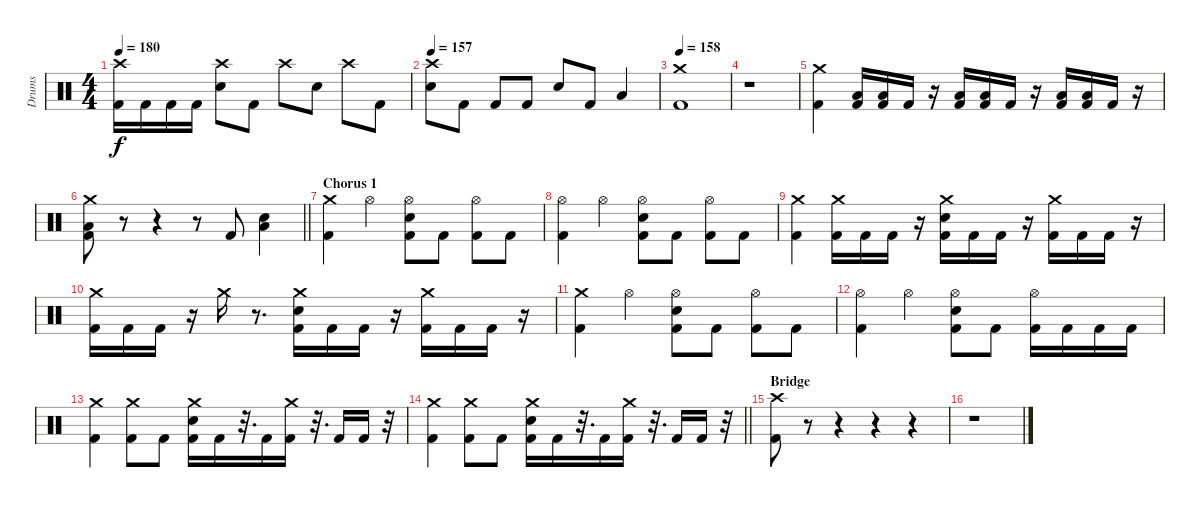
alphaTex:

\track ("Drums" "Drums") {instrument percussion}
\staff {score}
\articulation defaults
\ts (4 4)
\tempo 180
\clef neutral
\ks c
("Crash high (hit)" "Kick (hit) 2").16{dy f} "Kick (hit) 2".16 "Kick (hit) 2".16 "Kick (hit) 2".16 ("Crash high (hit)" "Electric Snare (hit)").8 "Kick (hit) 2".8 "Crash high (hit)".8 "Electric Snare (hit)".8 "Crash high (hit)".8 "Kick (hit) 2".8 |
\tempo 157
("Crash high (hit)" "Electric Snare (hit)").8 "Kick (hit) 2".8 "Kick (hit) 2".8 "Kick (hit) 2".8 "Electric Snare (hit)".8 "Kick (hit) 2".8 "Low Tom (hit)".4 |
\tempo 158
("Crash medium (hit)" "Kick (hit) 2").1 |
r.1 |
("Crash medium (hit)" "Kick (hit) 2").4 ("Low Tom (hit)" "Kick (hit) 2").16 ("Low Tom (hit)" "Kick (hit) 2").16 "Kick (hit) 2".16 r.16 ("Low Tom (hit)" "Kick (hit) 2").16 ("Low Tom (hit)" "Kick (hit) 2").16 "Kick (hit) 2".16 r.16 ("Low Tom (hit)" "Kick (hit) 2").16 ("Low Tom (hit)" "Kick (hit) 2").16 "Kick (hit) 2".16 r.16 |
\barLineRight lightlight
("Crash medium (hit)" "Low Tom (hit)" "Kick (hit) 2").8 r.8 r.4 r.8 "Kick (hit) 2".8 ("Electric Snare (hit)" "Low Tom (hit)").4 |
\section ("" "Chorus 1")
("Crash medium (hit)" "Kick (hit) 2").4 "Hi-Hat (open)".4 ("Hi-Hat (open)" "Electric Snare (hit)" "Kick (hit) 2").8 "Kick (hit) 2".8 ("Hi-Hat (open)" "Kick (hit) 2").8 "Kick (hit) 2".8 |
("Hi-Hat (open)" "Kick (hit) 2").4 "Hi-Hat (open)".4 ("Hi-Hat (open)" "Electric Snare (hit)" "Kick (hit) 2").8 "Kick (hit) 2".8 ("Hi-Hat (open)" "Kick (hit) 2").8 "Kick (hit) 2".8 |
("Crash medium (hit)" "Kick (hit) 2").4 ("Crash medium (hit)" "Kick (hit) 2").16 "Kick (hit) 2".16 "Kick (hit) 2".16 r.16 ("Crash medium (hit)" "Electric Snare (hit)" "Kick (hit) 2").16 "Kick (hit) 2".16 "Kick (hit) 2".16 r.16 ("Crash medium (hit)" "Kick (hit) 2").16 "Kick (hit) 2".16 "Kick (hit) 2".16 r.16 |
("Crash medium (hit)" "Kick (hit) 2").16 "Kick (hit) 2".16 "Kick (hit) 2".16 r.16 "Crash medium (hit)".16 r.8{d} ("Crash medium (hit)" "Electric Snare (hit)" "Kick (hit) 2").16 "Kick (hit) 2".16 "Kick (hit) 2".16 r.16 ("Crash medium (hit)" "Kick (hit) 2").16 "Kick (hit) 2".16 "Kick (hit) 2".16 r.16 |
("Crash medium (hit)" "Kick (hit) 2").4 "Hi-Hat (open)".4 ("Hi-Hat (open)" "Electric Snare (hit)" "Kick (hit) 2").8 "Kick (hit) 2".8 ("Hi-Hat (open)" "Kick (hit) 2").8 "Kick (hit) 2".8 |
("Hi-Hat (open)" "Kick (hit) 2").4 "Hi-Hat (open)".4 ("Hi-Hat (open)" "Electric Snare (hit)" "Kick (hit) 2").8 "Kick (hit) 2".8 ("Hi-Hat (open)" "Kick (hit) 2").16 "Kick (hit) 2".16 "Kick (hit) 2".16 "Kick (hit) 2".16 |
("Crash medium (hit)" "Kick (hit) 2").4 ("Crash medium (hit)" "Kick (hit) 2").8 "Kick (hit) 2".8 ("Crash medium (hit)" "Electric Snare (hit)" "Kick (hit) 2").16 "Kick (hit) 2".16 r.32{d} "Kick (hit) 2".16 ("Crash medium (hit)" "Kick (hit) 2").16 r.32{d} "Kick (hit) 2".16 "Kick (hit) 2".16 r.32 |
\barLineRight lightlight
("Crash medium (hit)" "Kick (hit) 2").4 ("Crash medium (hit)" "Kick (hit) 2").8 "Kick (hit) 2".8 ("Crash medium (hit)" "Electric Snare (hit)" "Kick (hit) 2").16 "Kick (hit) 2".16 r.32{d} "Kick (hit) 2".16 ("Crash medium (hit)" "Kick (hit) 2").16 r.32{d} "Kick (hit) 2".16 "Kick (hit) 2".16 r.32 |
\section ("" "Bridge")
("Crash high (hit)" "Kick (hit) 2").8 r.8 r.4 r.4 r.4 |
r.1
